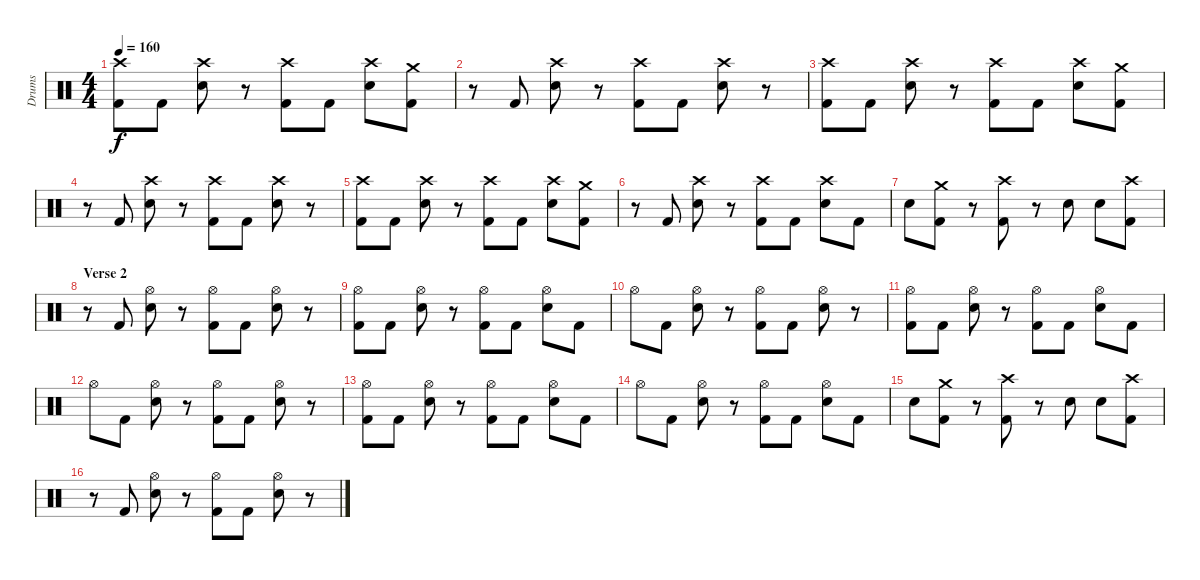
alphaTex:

\track ("Drums" "Drums") {instrument percussion}
\staff {score}
\articulation defaults
\ts (4 4)
\tempo 160
\clef neutral
\ks c
("Crash high (hit)" "Kick (hit) 2").8{dy f} "Kick (hit) 2".8 ("Crash high (hit)" "Snare (hit) 2").8 r.8 ("Crash high (hit)" "Kick (hit) 2").8 "Kick (hit) 2".8 ("Crash high (hit)" "Snare (hit) 2").8 ("Crash medium (hit)" "Kick (hit) 2").8 |
r.8 "Kick (hit) 2".8 ("Crash high (hit)" "Snare (hit) 2").8 r.8 ("Crash high (hit)" "Kick (hit) 2").8 "Kick (hit) 2".8 ("Crash high (hit)" "Snare (hit) 2").8 r.8 |
("Crash high (hit)" "Kick (hit) 2").8 "Kick (hit) 2".8 ("Crash high (hit)" "Snare (hit) 2").8 r.8 ("Crash high (hit)" "Kick (hit) 2").8 "Kick (hit) 2".8 ("Crash high (hit)" "Snare (hit) 2").8 ("Crash medium (hit)" "Kick (hit) 2").8 |
r.8 "Kick (hit) 2".8 ("Crash high (hit)" "Snare (hit) 2").8 r.8 ("Crash high (hit)" "Kick (hit) 2").8 "Kick (hit) 2".8 ("Crash high (hit)" "Snare (hit) 2").8 r.8 |
("Crash high (hit)" "Kick (hit) 2").8 "Kick (hit) 2".8 ("Crash high (hit)" "Snare (hit) 2").8 r.8 ("Crash high (hit)" "Kick (hit) 2").8 "Kick (hit) 2".8 ("Crash high (hit)" "Snare (hit) 2").8 ("Crash medium (hit)" "Kick (hit) 2").8 |
r.8 "Kick (hit) 2".8 ("Crash high (hit)" "Snare (hit) 2").8 r.8 ("Crash high (hit)" "Kick (hit) 2").8 "Kick (hit) 2".8 ("Crash high (hit)" "Snare (hit) 2").8 "Kick (hit) 2".8 |
"Snare (hit) 2".8 ("Crash medium (hit)" "Kick (hit) 2").8 r.8 ("Crash high (hit)" "Kick (hit) 2").8 r.8 "Snare (hit) 2".8 "Snare (hit) 2".8 ("Crash high (hit)" "Kick (hit) 2").8 |
\section ("" "Verse 2")
r.8 "Kick (hit) 2".8 ("Hi-Hat (open)" "Snare (hit) 2").8 r.8 ("Hi-Hat (open)" "Kick (hit) 2").8 "Kick (hit) 2".8 ("Hi-Hat (open)" "Snare (hit) 2").8 r.8 |
("Hi-Hat (open)" "Kick (hit) 2").8 "Kick (hit) 2".8 ("Hi-Hat (open)" "Snare (hit) 2").8 r.8 ("Hi-Hat (open)" "Kick (hit) 2").8 "Kick (hit) 2".8 ("Hi-Hat (open)" "Snare (hit) 2").8 "Kick (hit) 2".8 |
"Hi-Hat (open)".8 "Kick (hit) 2".8 ("Hi-Hat (open)" "Snare (hit) 2").8 r.8 ("Hi-Hat (open)" "Kick (hit) 2").8 "Kick (hit) 2".8 ("Hi-Hat (open)" "Snare (hit) 2").8 r.8 |
("Hi-Hat (open)" "Kick (hit) 2").8 "Kick (hit) 2".8 ("Hi-Hat (open)" "Snare (hit) 2").8 r.8 ("Hi-Hat (open)" "Kick (hit) 2").8 "Kick (hit) 2".8 ("Hi-Hat (open)" "Snare (hit) 2").8 "Kick (hit) 2".8 |
"Hi-Hat (open)".8 "Kick (hit) 2".8 ("Hi-Hat (open)" "Snare (hit) 2").8 r.8 ("Hi-Hat (open)" "Kick (hit) 2").8 "Kick (hit) 2".8 ("Hi-Hat (open)" "Snare (hit) 2").8 r.8 |
("Hi-Hat (open)" "Kick (hit) 2").8 "Kick (hit) 2".8 ("Hi-Hat (open)" "Snare (hit) 2").8 r.8 ("Hi-Hat (open)" "Kick (hit) 2").8 "Kick (hit) 2".8 ("Hi-Hat (open)" "Snare (hit) 2").8 "Kick (hit) 2".8 |
"Hi-Hat (open)".8 "Kick (hit) 2".8 ("Hi-Hat (open)" "Snare (hit) 2").8 r.8 ("Hi-Hat (open)" "Kick (hit) 2").8 "Kick (hit) 2".8 ("Hi-Hat (open)" "Snare (hit) 2").8 "Kick (hit) 2".8 |
"Snare (hit) 2".8 ("Crash medium (hit)" "Kick (hit) 2").8 r.8 ("Crash high (hit)" "Kick (hit) 2").8 r.8 "Snare (hit) 2".8 "Snare (hit) 2".8 ("Crash high (hit)" "Kick (hit) 2").8 |
r.8 "Kick (hit) 2".8 ("Hi-Hat (open)" "Snare (hit) 2").8 r.8 ("Hi-Hat (open)" "Kick (hit) 2").8 "Kick (hit) 2".8 ("Hi-Hat (open)" "Snare (hit) 2").8 r.8
